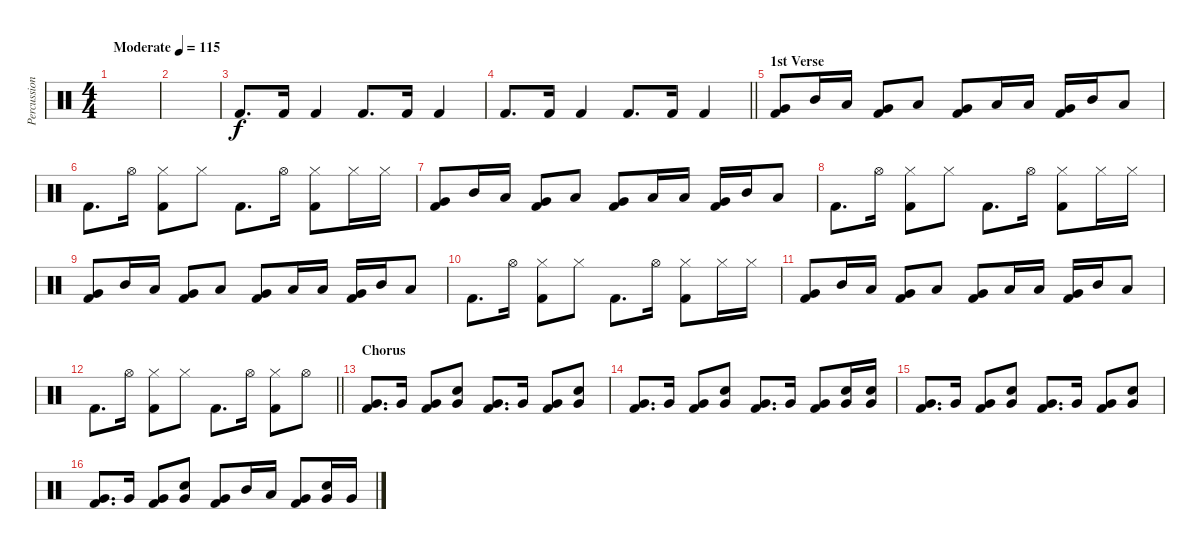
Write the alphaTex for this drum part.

\track ("Percussion" "Percussion") {instrument percussion}
\staff {score}
\articulation defaults
\ts (4 4)
\tempo (115 "Moderate")
\clef neutral
\ks c
|
|
"Kick (hit) 2".8{d} "Kick (hit) 2".16 "Kick (hit) 2".4 "Kick (hit) 2".8{d} "Kick (hit) 2".16 "Kick (hit) 2".4 |
\barLineRight lightlight "Kick (hit) 2".8{d} "Kick (hit) 2".16 "Kick (hit) 2".4 "Kick (hit) 2".8{d} "Kick (hit) 2".16 "Kick (hit) 2".4
|
\section ("" "1st Verse")
("Very Low Tom (hit)" "Kick (hit) 2").8 "Mid Tom (hit)".16 "Low Tom (hit)".16 ("Very Low Tom (hit)" "Kick (hit) 2").8 "Low Tom (hit)".8 ("Very Low Tom (hit)" "Kick (hit) 2").8 "Low Tom (hit)".16 "Low Tom (hit)".16 ("Very Low Tom (hit)" "Kick (hit) 2").16 "Mid Tom (hit)".16 "Low Tom (hit)".8 |
"Kick (hit) 2".8{d} "Hi-Hat (open)".16 ("Hi-Hat (closed)" "Kick (hit) 2").8 "Hi-Hat (closed)".8 "Kick (hit) 2".8{d} "Hi-Hat (open)".16 ("Hi-Hat (closed)" "Kick (hit) 2").8 "Hi-Hat (closed)".16 "Hi-Hat (closed)".16 |
("Very Low Tom (hit)" "Kick (hit) 2").8 "Mid Tom (hit)".16 "Low Tom (hit)".16 ("Very Low Tom (hit)" "Kick (hit) 2").8 "Low Tom (hit)".8 ("Very Low Tom (hit)" "Kick (hit) 2").8 "Low Tom (hit)".16 "Low Tom (hit)".16 ("Very Low Tom (hit)" "Kick (hit) 2").16 "Mid Tom (hit)".16 "Low Tom (hit)".8 |
"Kick (hit) 2".8{d} "Hi-Hat (open)".16 ("Hi-Hat (closed)" "Kick (hit) 2").8 "Hi-Hat (closed)".8 "Kick (hit) 2".8{d} "Hi-Hat (open)".16 ("Hi-Hat (closed)" "Kick (hit) 2").8 "Hi-Hat (closed)".16 "Hi-Hat (closed)".16 |
("Very Low Tom (hit)" "Kick (hit) 2").8 "Mid Tom (hit)".16 "Low Tom (hit)".16 ("Very Low Tom (hit)" "Kick (hit) 2").8 "Low Tom (hit)".8 ("Very Low Tom (hit)" "Kick (hit) 2").8 "Low Tom (hit)".16 "Low Tom (hit)".16 ("Very Low Tom (hit)" "Kick (hit) 2").16 "Mid Tom (hit)".16 "Low Tom (hit)".8 |
"Kick (hit) 2".8{d} "Hi-Hat (open)".16 ("Hi-Hat (closed)" "Kick (hit) 2").8 "Hi-Hat (closed)".8 "Kick (hit) 2".8{d} "Hi-Hat (open)".16 ("Hi-Hat (closed)" "Kick (hit) 2").8 "Hi-Hat (closed)".16 "Hi-Hat (closed)".16 |
("Very Low Tom (hit)" "Kick (hit) 2").8 "Mid Tom (hit)".16 "Low Tom (hit)".16 ("Very Low Tom (hit)" "Kick (hit) 2").8 "Low Tom (hit)".8 ("Very Low Tom (hit)" "Kick (hit) 2").8 "Low Tom (hit)".16 "Low Tom (hit)".16 ("Very Low Tom (hit)" "Kick (hit) 2").16 "Mid Tom (hit)".16 "Low Tom (hit)".8 |
\barLineRight lightlight "Kick (hit) 2".8{d} "Hi-Hat (open)".16
("Hi-Hat (closed)" "Kick (hit) 2").8 "Hi-Hat (closed)".8 "Kick (hit) 2".8{d} "Hi-Hat (open)".16 ("Hi-Hat (closed)" "Kick (hit) 2").8 "Hi-Hat (open)".8 |
\section ("" "Chorus")
("Very Low Tom (hit)" "Kick (hit) 2").8{d} "Very Low Tom (hit)".16 ("Very Low Tom (hit)" "Kick (hit) 2").8 ("Very Low Tom (hit)" "Snare (hit) 2").8 ("Very Low Tom (hit)" "Kick (hit) 2").8{d} "Very Low Tom (hit)".16 ("Very Low Tom (hit)" "Kick (hit) 2").8 ("Very Low Tom (hit)" "Snare (hit) 2").8 |
("Very Low Tom (hit)" "Kick (hit) 2").8{d} "Very Low Tom (hit)".16 ("Very Low Tom (hit)" "Kick (hit) 2").8 ("Very Low Tom (hit)" "Snare (hit) 2").8 ("Very Low Tom (hit)" "Kick (hit) 2").8{d} "Very Low Tom (hit)".16 ("Very Low Tom (hit)" "Kick (hit) 2").8 ("Very Low Tom (hit)" "Snare (hit) 2").16 ("Very Low Tom (hit)" "Snare (hit) 2").16 |
("Very Low Tom (hit)" "Kick (hit) 2").8{d} "Very Low Tom (hit)".16 ("Very Low Tom (hit)" "Kick (hit) 2").8 ("Very Low Tom (hit)" "Snare (hit) 2").8 ("Very Low Tom (hit)" "Kick (hit) 2").8{d} "Very Low Tom (hit)".16 ("Very Low Tom (hit)" "Kick (hit) 2").8 ("Very Low Tom (hit)" "Snare (hit) 2").8 |
("Very Low Tom (hit)" "Kick (hit) 2").8{d} "Very Low Tom (hit)".16 ("Very Low Tom (hit)" "Kick (hit) 2").8 ("Very Low Tom (hit)" "Snare (hit) 2").8 ("Very Low Tom (hit)" "Kick (hit) 2").8 "Mid Tom (hit)".16 "Low Tom (hit)".16 ("Very Low Tom (hit)" "Kick (hit) 2").8 ("Very Low Tom (hit)" "Snare (hit) 2").16 "Very Low Tom (hit)".16
